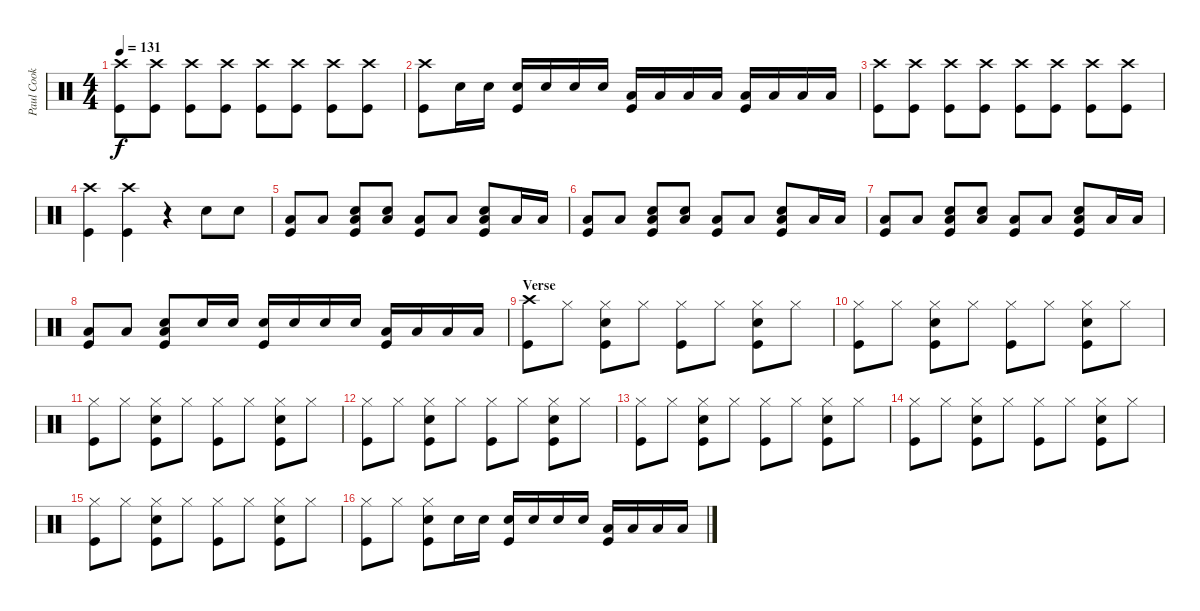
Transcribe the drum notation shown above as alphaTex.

\track ("Paul Cook" "Paul Cook") {instrument percussion}
\staff {score}
\articulation defaults
\ts (4 4)
\tempo 131
\clef neutral
\ks c
("Crash high (hit)" "Kick (hit)").8{dy f} ("Crash high (hit)" "Kick (hit)").8 ("Crash high (hit)" "Kick (hit)").8 ("Crash high (hit)" "Kick (hit)").8 ("Crash high (hit)" "Kick (hit)").8 ("Crash high (hit)" "Kick (hit)").8 ("Crash high (hit)" "Kick (hit)").8 ("Crash high (hit)" "Kick (hit)").8 |
("Crash high (hit)" "Kick (hit)").8 "Snare (hit) 2".16 "Snare (hit) 2".16 ("Snare (hit) 2" "Kick (hit)").16 "Snare (hit) 2".16 "Snare (hit) 2".16 "Snare (hit) 2".16 ("Low Tom (hit)" "Kick (hit)").16 "Low Tom (hit)".16 "Low Tom (hit)".16 "Low Tom (hit)".16 ("Low Tom (hit)" "Kick (hit)").16 "Low Tom (hit)".16 "Low Tom (hit)".16 "Low Tom (hit)".16 |
("Crash high (hit)" "Kick (hit)").8 ("Crash high (hit)" "Kick (hit)").8 ("Crash high (hit)" "Kick (hit)").8 ("Crash high (hit)" "Kick (hit)").8 ("Crash high (hit)" "Kick (hit)").8 ("Crash high (hit)" "Kick (hit)").8 ("Crash high (hit)" "Kick (hit)").8 ("Crash high (hit)" "Kick (hit)").8 |
("Crash high (hit)" "Kick (hit)").4 ("Crash high (hit)" "Kick (hit)").4 r.4 "Snare (hit) 2".8 "Snare (hit) 2".8 |
("Low Tom (hit)" "Kick (hit)").8 "Low Tom (hit)".8 ("Low Tom (hit)" "Snare (hit) 2" "Kick (hit)").8 ("Low Tom (hit)" "Snare (hit) 2").8 ("Low Tom (hit)" "Kick (hit)").8 "Low Tom (hit)".8 ("Low Tom (hit)" "Snare (hit) 2" "Kick (hit)").8 "Low Tom (hit)".16 "Low Tom (hit)".16 |
("Low Tom (hit)" "Kick (hit)").8 "Low Tom (hit)".8 ("Low Tom (hit)" "Snare (hit) 2" "Kick (hit)").8 ("Low Tom (hit)" "Snare (hit) 2").8 ("Low Tom (hit)" "Kick (hit)").8 "Low Tom (hit)".8 ("Low Tom (hit)" "Snare (hit) 2" "Kick (hit)").8 "Low Tom (hit)".16 "Low Tom (hit)".16 |
("Low Tom (hit)" "Kick (hit)").8 "Low Tom (hit)".8 ("Low Tom (hit)" "Snare (hit) 2" "Kick (hit)").8 ("Low Tom (hit)" "Snare (hit) 2").8 ("Low Tom (hit)" "Kick (hit)").8 "Low Tom (hit)".8 ("Low Tom (hit)" "Snare (hit) 2" "Kick (hit)").8 "Low Tom (hit)".16 "Low Tom (hit)".16 |
("Low Tom (hit)" "Kick (hit)").8 "Low Tom (hit)".8 ("Low Tom (hit)" "Snare (hit) 2" "Kick (hit)").8 "Snare (hit) 2".16 "Snare (hit) 2".16 ("Snare (hit) 2" "Kick (hit)").16 "Snare (hit) 2".16 "Snare (hit) 2".16 "Snare (hit) 2".16 ("Low Tom (hit)" "Kick (hit)").16 "Low Tom (hit)".16 "Low Tom (hit)".16 "Low Tom (hit)".16 |
\section ("" "Verse")
("Crash high (hit)" "Kick (hit)").8 "Hi-Hat (closed)".8 ("Hi-Hat (closed)" "Snare (hit) 2" "Kick (hit)").8 "Hi-Hat (closed)".8 ("Hi-Hat (closed)" "Kick (hit)").8 "Hi-Hat (closed)".8 ("Hi-Hat (closed)" "Snare (hit) 2" "Kick (hit)").8 "Hi-Hat (closed)".8 |
("Hi-Hat (closed)" "Kick (hit)").8 "Hi-Hat (closed)".8 ("Hi-Hat (closed)" "Snare (hit) 2" "Kick (hit)").8 "Hi-Hat (closed)".8 ("Hi-Hat (closed)" "Kick (hit)").8 "Hi-Hat (closed)".8 ("Hi-Hat (closed)" "Snare (hit) 2" "Kick (hit)").8 "Hi-Hat (closed)".8 |
("Hi-Hat (closed)" "Kick (hit)").8 "Hi-Hat (closed)".8 ("Hi-Hat (closed)" "Snare (hit) 2" "Kick (hit)").8 "Hi-Hat (closed)".8 ("Hi-Hat (closed)" "Kick (hit)").8 "Hi-Hat (closed)".8 ("Hi-Hat (closed)" "Snare (hit) 2" "Kick (hit)").8 "Hi-Hat (closed)".8 |
("Hi-Hat (closed)" "Kick (hit)").8 "Hi-Hat (closed)".8 ("Hi-Hat (closed)" "Snare (hit) 2" "Kick (hit)").8 "Hi-Hat (closed)".8 ("Hi-Hat (closed)" "Kick (hit)").8 "Hi-Hat (closed)".8 ("Hi-Hat (closed)" "Snare (hit) 2" "Kick (hit)").8 "Hi-Hat (closed)".8 |
("Hi-Hat (closed)" "Kick (hit)").8 "Hi-Hat (closed)".8 ("Hi-Hat (closed)" "Snare (hit) 2" "Kick (hit)").8 "Hi-Hat (closed)".8 ("Hi-Hat (closed)" "Kick (hit)").8 "Hi-Hat (closed)".8 ("Hi-Hat (closed)" "Snare (hit) 2" "Kick (hit)").8 "Hi-Hat (closed)".8 |
("Hi-Hat (closed)" "Kick (hit)").8 "Hi-Hat (closed)".8 ("Hi-Hat (closed)" "Snare (hit) 2" "Kick (hit)").8 "Hi-Hat (closed)".8 ("Hi-Hat (closed)" "Kick (hit)").8 "Hi-Hat (closed)".8 ("Hi-Hat (closed)" "Snare (hit) 2" "Kick (hit)").8 "Hi-Hat (closed)".8 |
("Hi-Hat (closed)" "Kick (hit)").8 "Hi-Hat (closed)".8 ("Hi-Hat (closed)" "Snare (hit) 2" "Kick (hit)").8 "Hi-Hat (closed)".8 ("Hi-Hat (closed)" "Kick (hit)").8 "Hi-Hat (closed)".8 ("Hi-Hat (closed)" "Snare (hit) 2" "Kick (hit)").8 "Hi-Hat (closed)".8 |
("Hi-Hat (closed)" "Kick (hit)").8 "Hi-Hat (closed)".8 ("Hi-Hat (closed)" "Snare (hit) 2" "Kick (hit)").8 "Snare (hit) 2".16 "Snare (hit) 2".16 ("Snare (hit) 2" "Kick (hit)").16 "Snare (hit) 2".16 "Snare (hit) 2".16 "Snare (hit) 2".16 ("Low Tom (hit)" "Kick (hit)").16 "Low Tom (hit)".16 "Low Tom (hit)".16 "Low Tom (hit)".16
